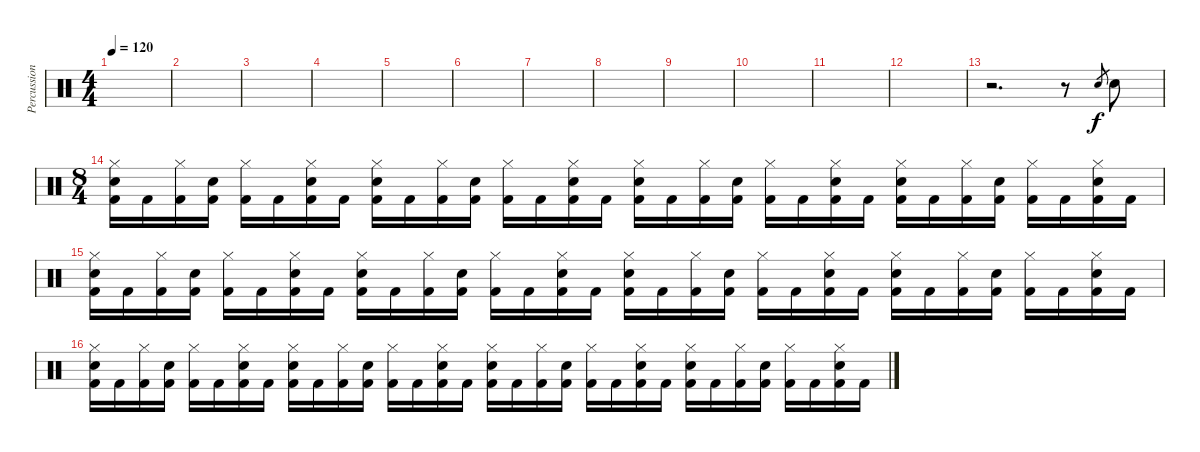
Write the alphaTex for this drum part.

\track ("Percussion" "Percussion") {instrument percussion}
\staff {score}
\articulation defaults
\ts (4 4)
\tempo 120
\clef neutral
\ks c
|
|
|
|
|
|
|
|
|
|
|
|
r.2{d} r.8 "Snare (hit) 2".8{gr} "Snare (hit) 2".8 |
\ts (8 4)
("Hi-Hat (closed)" "Snare (hit) 2" "Kick (hit) 2").16 "Kick (hit) 2".16 ("Hi-Hat (closed)" "Kick (hit) 2").16 ("Snare (hit) 2" "Kick (hit) 2").16 ("Hi-Hat (closed)" "Kick (hit) 2").16 "Kick (hit) 2".16 ("Hi-Hat (closed)" "Snare (hit) 2" "Kick (hit) 2").16 "Kick (hit) 2".16 ("Hi-Hat (closed)" "Snare (hit) 2" "Kick (hit) 2").16 "Kick (hit) 2".16 ("Hi-Hat (closed)" "Kick (hit) 2").16 ("Snare (hit) 2" "Kick (hit) 2").16 ("Hi-Hat (closed)" "Kick (hit) 2").16 "Kick (hit) 2".16 ("Hi-Hat (closed)" "Snare (hit) 2" "Kick (hit) 2").16 "Kick (hit) 2".16 ("Hi-Hat (closed)" "Snare (hit) 2" "Kick (hit) 2").16 "Kick (hit) 2".16 ("Hi-Hat (closed)" "Kick (hit) 2").16 ("Snare (hit) 2" "Kick (hit) 2").16 ("Hi-Hat (closed)" "Kick (hit) 2").16 "Kick (hit) 2".16 ("Hi-Hat (closed)" "Snare (hit) 2" "Kick (hit) 2").16 "Kick (hit) 2".16 ("Hi-Hat (closed)" "Snare (hit) 2" "Kick (hit) 2").16 "Kick (hit) 2".16 ("Hi-Hat (closed)" "Kick (hit) 2").16 ("Snare (hit) 2" "Kick (hit) 2").16 ("Hi-Hat (closed)" "Kick (hit) 2").16 "Kick (hit) 2".16 ("Hi-Hat (closed)" "Snare (hit) 2" "Kick (hit) 2").16 "Kick (hit) 2".16 |
("Hi-Hat (closed)" "Snare (hit) 2" "Kick (hit) 2").16 "Kick (hit) 2".16 ("Hi-Hat (closed)" "Kick (hit) 2").16 ("Snare (hit) 2" "Kick (hit) 2").16 ("Hi-Hat (closed)" "Kick (hit) 2").16 "Kick (hit) 2".16 ("Hi-Hat (closed)" "Snare (hit) 2" "Kick (hit) 2").16 "Kick (hit) 2".16 ("Hi-Hat (closed)" "Snare (hit) 2" "Kick (hit) 2").16 "Kick (hit) 2".16 ("Hi-Hat (closed)" "Kick (hit) 2").16 ("Snare (hit) 2" "Kick (hit) 2").16 ("Hi-Hat (closed)" "Kick (hit) 2").16 "Kick (hit) 2".16 ("Hi-Hat (closed)" "Snare (hit) 2" "Kick (hit) 2").16 "Kick (hit) 2".16 ("Hi-Hat (closed)" "Snare (hit) 2" "Kick (hit) 2").16 "Kick (hit) 2".16 ("Hi-Hat (closed)" "Kick (hit) 2").16 ("Snare (hit) 2" "Kick (hit) 2").16 ("Hi-Hat (closed)" "Kick (hit) 2").16 "Kick (hit) 2".16 ("Hi-Hat (closed)" "Snare (hit) 2" "Kick (hit) 2").16 "Kick (hit) 2".16 ("Hi-Hat (closed)" "Snare (hit) 2" "Kick (hit) 2").16 "Kick (hit) 2".16 ("Hi-Hat (closed)" "Kick (hit) 2").16 ("Snare (hit) 2" "Kick (hit) 2").16 ("Hi-Hat (closed)" "Kick (hit) 2").16 "Kick (hit) 2".16 ("Hi-Hat (closed)" "Snare (hit) 2" "Kick (hit) 2").16 "Kick (hit) 2".16 |
("Hi-Hat (closed)" "Snare (hit) 2" "Kick (hit) 2").16 "Kick (hit) 2".16 ("Hi-Hat (closed)" "Kick (hit) 2").16 ("Snare (hit) 2" "Kick (hit) 2").16 ("Hi-Hat (closed)" "Kick (hit) 2").16 "Kick (hit) 2".16 ("Hi-Hat (closed)" "Snare (hit) 2" "Kick (hit) 2").16 "Kick (hit) 2".16 ("Hi-Hat (closed)" "Snare (hit) 2" "Kick (hit) 2").16 "Kick (hit) 2".16 ("Hi-Hat (closed)" "Kick (hit) 2").16 ("Snare (hit) 2" "Kick (hit) 2").16 ("Hi-Hat (closed)" "Kick (hit) 2").16 "Kick (hit) 2".16 ("Hi-Hat (closed)" "Snare (hit) 2" "Kick (hit) 2").16 "Kick (hit) 2".16 ("Hi-Hat (closed)" "Snare (hit) 2" "Kick (hit) 2").16 "Kick (hit) 2".16 ("Hi-Hat (closed)" "Kick (hit) 2").16 ("Snare (hit) 2" "Kick (hit) 2").16 ("Hi-Hat (closed)" "Kick (hit) 2").16 "Kick (hit) 2".16 ("Hi-Hat (closed)" "Snare (hit) 2" "Kick (hit) 2").16 "Kick (hit) 2".16 ("Hi-Hat (closed)" "Snare (hit) 2" "Kick (hit) 2").16 "Kick (hit) 2".16 ("Hi-Hat (closed)" "Kick (hit) 2").16 ("Snare (hit) 2" "Kick (hit) 2").16 ("Hi-Hat (closed)" "Kick (hit) 2").16 "Kick (hit) 2".16 ("Hi-Hat (closed)" "Snare (hit) 2" "Kick (hit) 2").16 "Kick (hit) 2".16
